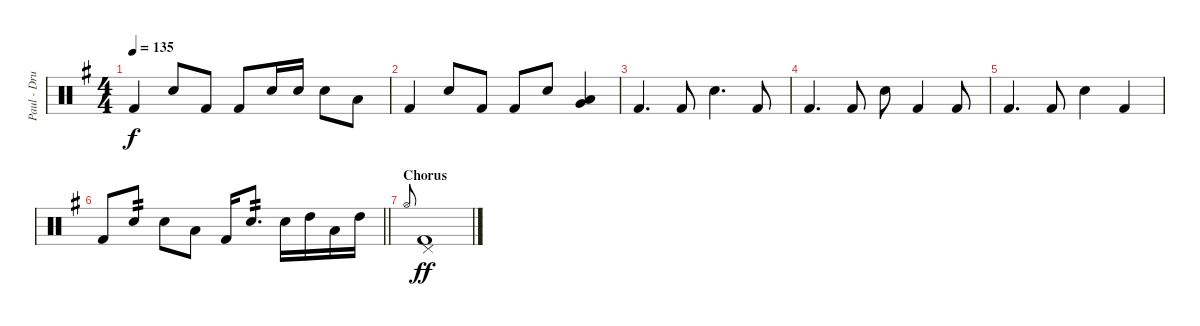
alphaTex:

\track ("Paul - Drums" "Paul - Dru") {instrument percussion}
\staff {score}
\articulation defaults
\ts (4 4)
\tempo 135
\clef neutral
\ks g "Kick (hit) 2".4{dy f} "Electric Snare (hit)".8 "Kick (hit) 2".8 "Kick (hit) 2".8 "Electric Snare (hit)".16 "Electric Snare (hit)".16 "Electric Snare (hit)".8 "Low Tom (hit)".8
|
"Kick (hit) 2".4 "Electric Snare (hit)".8 "Kick (hit) 2".8 "Kick (hit) 2".8 "Electric Snare (hit)".8 ("Low Floor Tom (hit)" "Very Low Tom (hit)").4 |
"Kick (hit) 2".4{d} "Kick (hit) 2".8 "Electric Snare (hit)".4{d} "Kick (hit) 2".8 |
"Kick (hit) 2".4{d} "Kick (hit) 2".8 "Electric Snare (hit)".8 "Kick (hit) 2".4 "Kick (hit) 2".8 |
"Kick (hit) 2".4{d} "Kick (hit) 2".8 "Electric Snare (hit)".4 "Kick (hit) 2".4 |
\barLineRight lightlight "Kick (hit) 2".8 "Electric Snare (hit)".8{tp 2} "Electric Snare (hit)".8 "Low Tom (hit)".8 "Kick (hit) 2".16 "Electric Snare (hit)".8{d tp 2} "Electric Snare (hit)".16 "High Tom (hit)".16 "Low Tom (hit)".16 "High Tom (hit)".16
|
\section ("" "Chorus")
"Hi-Hat (open)".8{gr onbeat} ("Pedal Hi-Hat (hit)" "Kick (hit) 2").1{dy ff}
